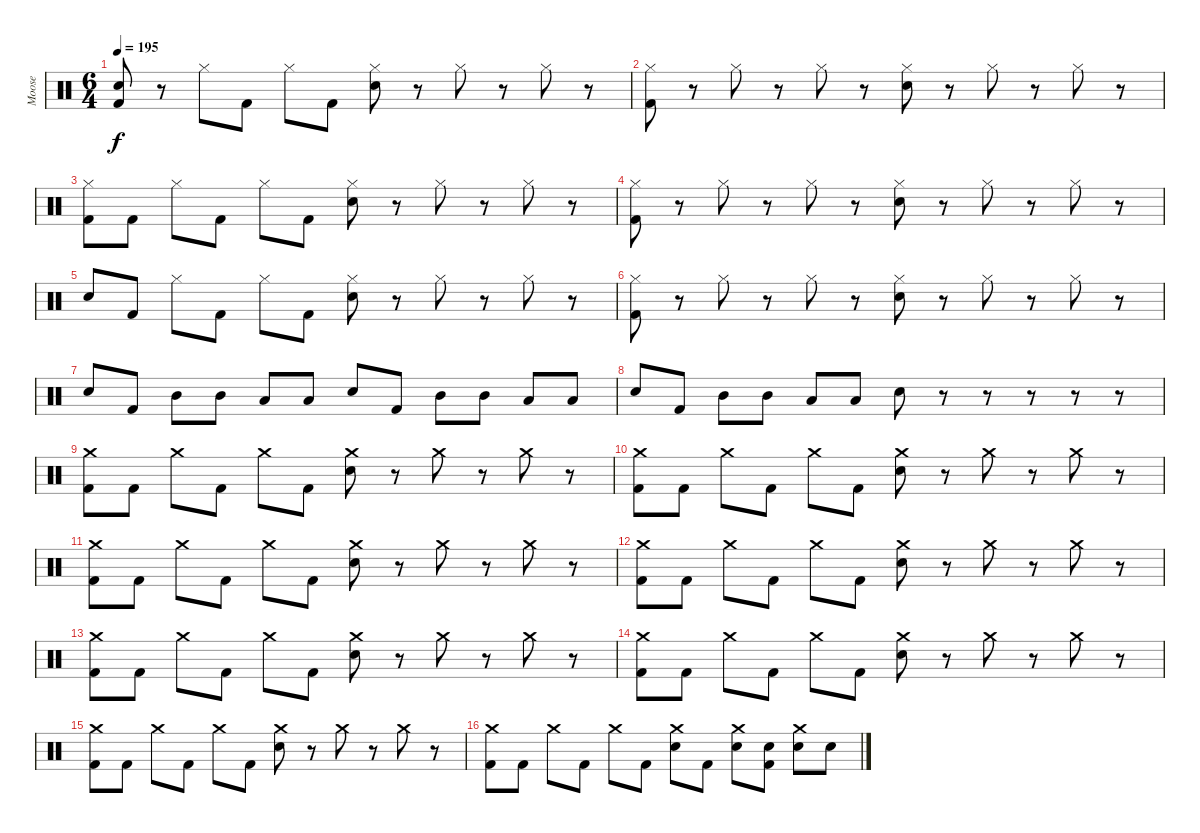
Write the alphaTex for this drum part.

\track ("Moose" "Moose") {instrument percussion}
\staff {score}
\articulation defaults
\ts (6 4)
\tempo 195
\clef neutral
\ks c
("Electric Snare (hit)" "Kick (hit) 2").8{dy f} r.8 "Hi-Hat (closed)".8 "Kick (hit) 2".8 "Hi-Hat (closed)".8 "Kick (hit) 2".8 ("Hi-Hat (closed)" "Electric Snare (hit)").8 r.8 "Hi-Hat (closed)".8 r.8 "Hi-Hat (closed)".8 r.8 |
("Hi-Hat (closed)" "Kick (hit) 2").8 r.8 "Hi-Hat (closed)".8 r.8 "Hi-Hat (closed)".8 r.8 ("Hi-Hat (closed)" "Electric Snare (hit)").8 r.8 "Hi-Hat (closed)".8 r.8 "Hi-Hat (closed)".8 r.8 |
("Hi-Hat (closed)" "Kick (hit) 2").8 "Kick (hit) 2".8 "Hi-Hat (closed)".8 "Kick (hit) 2".8 "Hi-Hat (closed)".8 "Kick (hit) 2".8 ("Hi-Hat (closed)" "Electric Snare (hit)").8 r.8 "Hi-Hat (closed)".8 r.8 "Hi-Hat (closed)".8 r.8 |
("Hi-Hat (closed)" "Kick (hit) 2").8 r.8 "Hi-Hat (closed)".8 r.8 "Hi-Hat (closed)".8 r.8 ("Hi-Hat (closed)" "Electric Snare (hit)").8 r.8 "Hi-Hat (closed)".8 r.8 "Hi-Hat (closed)".8 r.8 |
"Electric Snare (hit)".8 "Kick (hit) 2".8 "Hi-Hat (closed)".8 "Kick (hit) 2".8 "Hi-Hat (closed)".8 "Kick (hit) 2".8 ("Hi-Hat (closed)" "Electric Snare (hit)").8 r.8 "Hi-Hat (closed)".8 r.8 "Hi-Hat (closed)".8 r.8 |
("Hi-Hat (closed)" "Kick (hit) 2").8 r.8 "Hi-Hat (closed)".8 r.8 "Hi-Hat (closed)".8 r.8 ("Hi-Hat (closed)" "Electric Snare (hit)").8 r.8 "Hi-Hat (closed)".8 r.8 "Hi-Hat (closed)".8 r.8 |
"Electric Snare (hit)".8 "Kick (hit) 2".8 "Mid Tom (hit)".8 "Mid Tom (hit)".8 "Low Tom (hit)".8 "Low Floor Tom (hit)".8 "Electric Snare (hit)".8 "Kick (hit) 2".8 "Mid Tom (hit)".8 "Mid Tom (hit)".8 "Low Tom (hit)".8 "Low Floor Tom (hit)".8 |
"Electric Snare (hit)".8 "Kick (hit) 2".8 "Mid Tom (hit)".8 "Mid Tom (hit)".8 "Low Tom (hit)".8 "Low Floor Tom (hit)".8 "Electric Snare (hit)".8 r.8 r.8 r.8 r.8 r.8 |
("Crash medium (hit)" "Kick (hit) 2").8 "Kick (hit) 2".8 "Crash medium (hit)".8 "Kick (hit) 2".8 "Crash medium (hit)".8 "Kick (hit) 2".8 ("Crash medium (hit)" "Electric Snare (hit)").8 r.8 "Crash medium (hit)".8 r.8 "Crash medium (hit)".8 r.8 |
("Crash medium (hit)" "Kick (hit) 2").8 "Kick (hit) 2".8 "Crash medium (hit)".8 "Kick (hit) 2".8 "Crash medium (hit)".8 "Kick (hit) 2".8 ("Crash medium (hit)" "Electric Snare (hit)").8 r.8 "Crash medium (hit)".8 r.8 "Crash medium (hit)".8 r.8 |
("Crash medium (hit)" "Kick (hit) 2").8 "Kick (hit) 2".8 "Crash medium (hit)".8 "Kick (hit) 2".8 "Crash medium (hit)".8 "Kick (hit) 2".8 ("Crash medium (hit)" "Electric Snare (hit)").8 r.8 "Crash medium (hit)".8 r.8 "Crash medium (hit)".8 r.8 |
("Crash medium (hit)" "Kick (hit) 2").8 "Kick (hit) 2".8 "Crash medium (hit)".8 "Kick (hit) 2".8 "Crash medium (hit)".8 "Kick (hit) 2".8 ("Crash medium (hit)" "Electric Snare (hit)").8 r.8 "Crash medium (hit)".8 r.8 "Crash medium (hit)".8 r.8 |
("Crash medium (hit)" "Kick (hit) 2").8 "Kick (hit) 2".8 "Crash medium (hit)".8 "Kick (hit) 2".8 "Crash medium (hit)".8 "Kick (hit) 2".8 ("Crash medium (hit)" "Electric Snare (hit)").8 r.8 "Crash medium (hit)".8 r.8 "Crash medium (hit)".8 r.8 |
("Crash medium (hit)" "Kick (hit) 2").8 "Kick (hit) 2".8 "Crash medium (hit)".8 "Kick (hit) 2".8 "Crash medium (hit)".8 "Kick (hit) 2".8 ("Crash medium (hit)" "Electric Snare (hit)").8 r.8 "Crash medium (hit)".8 r.8 "Crash medium (hit)".8 r.8 |
("Crash medium (hit)" "Kick (hit) 2").8 "Kick (hit) 2".8 "Crash medium (hit)".8 "Kick (hit) 2".8 "Crash medium (hit)".8 "Kick (hit) 2".8 ("Crash medium (hit)" "Electric Snare (hit)").8 r.8 "Crash medium (hit)".8 r.8 "Crash medium (hit)".8 r.8 |
("Crash medium (hit)" "Kick (hit) 2").8 "Kick (hit) 2".8 "Crash medium (hit)".8 "Kick (hit) 2".8 "Crash medium (hit)".8 "Kick (hit) 2".8 ("Crash medium (hit)" "Electric Snare (hit)").8 "Kick (hit) 2".8 ("Crash medium (hit)" "Electric Snare (hit)").8 ("Electric Snare (hit)" "Kick (hit) 2").8 ("Crash medium (hit)" "Electric Snare (hit)").8 "Electric Snare (hit)".8
